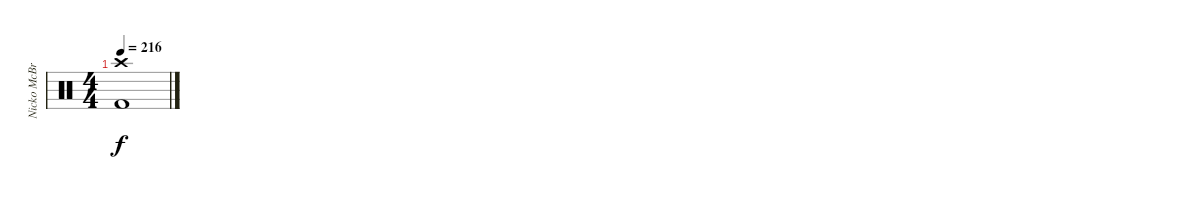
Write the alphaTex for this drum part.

\track ("Nicko McBrain" "Nicko McBr") {instrument percussion}
\staff {score}
\articulation defaults
\ts (4 4)
\tempo 216
\clef neutral
\ks c
("Crash high (hit)" "Kick (hit) 2").1{dy f}
